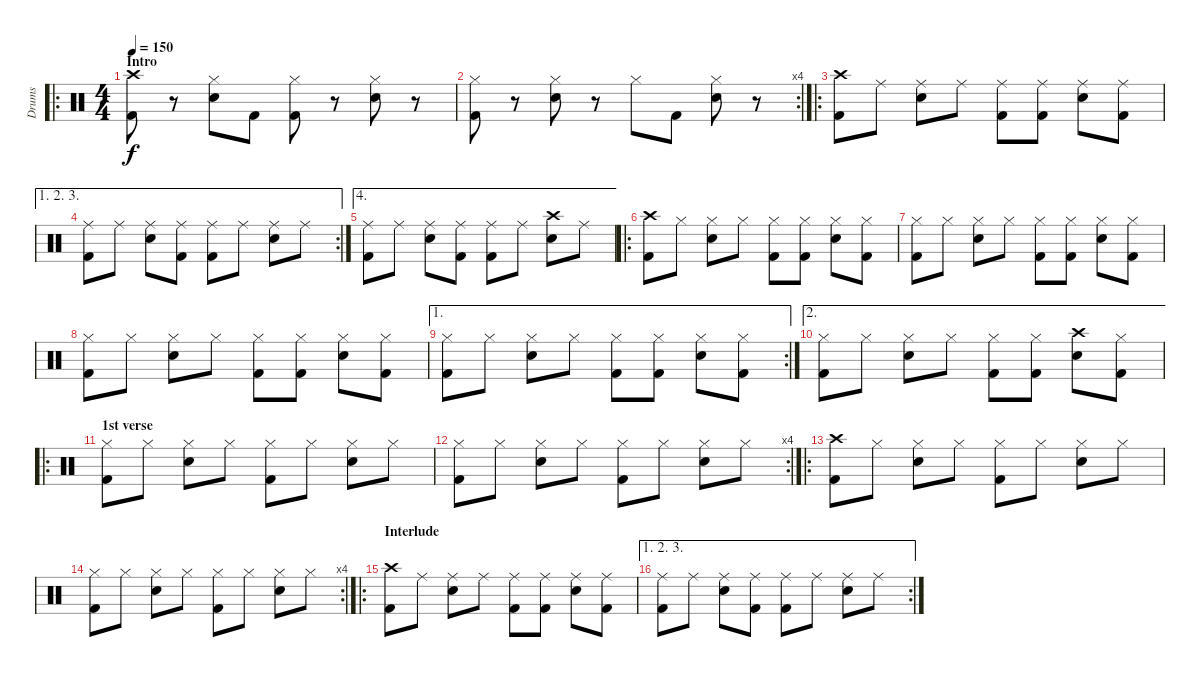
\track ("Drums" "Drums") {instrument percussion}
\staff {score}
\articulation defaults
\ro
\ts (4 4)
\section ("" "Intro")
\tempo 150
\clef neutral
\ks c
("Crash high (hit)" "Kick (hit) 2").8{dy f} r.8 ("Hi-Hat (closed)" "Electric Snare (hit)").8 "Kick (hit) 2".8 ("Hi-Hat (closed)" "Kick (hit) 2").8 r.8 ("Hi-Hat (closed)" "Electric Snare (hit)").8 r.8 |
\rc 4
("Hi-Hat (closed)" "Kick (hit) 2").8 r.8 ("Hi-Hat (closed)" "Electric Snare (hit)").8 r.8 "Hi-Hat (closed)".8 "Kick (hit) 2".8 ("Hi-Hat (closed)" "Electric Snare (hit)").8 r.8 |
\ro
("Crash high (hit)" "Kick (hit) 2").8 "Ride (middle)".8 ("Ride (middle)" "Electric Snare (hit)").8 "Ride (middle)".8 ("Ride (middle)" "Kick (hit) 2").8 ("Ride (middle)" "Kick (hit) 2").8 ("Ride (middle)" "Electric Snare (hit)").8 ("Ride (middle)" "Kick (hit) 2").8 |
\ae (1 2 3)
\rc 2
("Ride (middle)" "Kick (hit) 2").8 "Ride (middle)".8 ("Ride (middle)" "Electric Snare (hit)").8 ("Ride (middle)" "Kick (hit) 2").8 ("Ride (middle)" "Kick (hit) 2").8 "Ride (middle)".8 ("Ride (middle)" "Electric Snare (hit)").8 "Ride (middle)".8 |
\ae 4
("Ride (middle)" "Kick (hit) 2").8 "Ride (middle)".8 ("Ride (middle)" "Electric Snare (hit)").8 ("Ride (middle)" "Kick (hit) 2").8 ("Ride (middle)" "Kick (hit) 2").8 "Ride (middle)".8 ("Crash high (hit)" "Electric Snare (hit)").8 "Ride (middle)".8 |
\ro
("Crash high (hit)" "Kick (hit) 2").8 "Hi-Hat (closed)".8 ("Hi-Hat (closed)" "Electric Snare (hit)").8 "Hi-Hat (closed)".8 ("Hi-Hat (closed)" "Kick (hit) 2").8 ("Hi-Hat (closed)" "Kick (hit) 2").8 ("Hi-Hat (closed)" "Electric Snare (hit)").8 ("Hi-Hat (closed)" "Kick (hit) 2").8 |
("Hi-Hat (closed)" "Kick (hit) 2").8 "Hi-Hat (closed)".8 ("Hi-Hat (closed)" "Electric Snare (hit)").8 "Hi-Hat (closed)".8 ("Hi-Hat (closed)" "Kick (hit) 2").8 ("Hi-Hat (closed)" "Kick (hit) 2").8 ("Hi-Hat (closed)" "Electric Snare (hit)").8 ("Hi-Hat (closed)" "Kick (hit) 2").8 |
("Hi-Hat (closed)" "Kick (hit) 2").8 "Hi-Hat (closed)".8 ("Hi-Hat (closed)" "Electric Snare (hit)").8 "Hi-Hat (closed)".8 ("Hi-Hat (closed)" "Kick (hit) 2").8 ("Hi-Hat (closed)" "Kick (hit) 2").8 ("Hi-Hat (closed)" "Electric Snare (hit)").8 ("Hi-Hat (closed)" "Kick (hit) 2").8 |
\ae 1
\rc 2
("Hi-Hat (closed)" "Kick (hit) 2").8 "Hi-Hat (closed)".8 ("Hi-Hat (closed)" "Electric Snare (hit)").8 "Hi-Hat (closed)".8 ("Hi-Hat (closed)" "Kick (hit) 2").8 ("Hi-Hat (closed)" "Kick (hit) 2").8 ("Hi-Hat (closed)" "Electric Snare (hit)").8 ("Hi-Hat (closed)" "Kick (hit) 2").8 |
\ae 2
("Hi-Hat (closed)" "Kick (hit) 2").8 "Hi-Hat (closed)".8 ("Hi-Hat (closed)" "Electric Snare (hit)").8 "Hi-Hat (closed)".8 ("Hi-Hat (closed)" "Kick (hit) 2").8 ("Hi-Hat (closed)" "Kick (hit) 2").8 ("Crash high (hit)" "Electric Snare (hit)").8 ("Hi-Hat (closed)" "Kick (hit) 2").8 |
\ro
\section ("" "1st verse")
("Hi-Hat (closed)" "Kick (hit) 2").8 "Hi-Hat (closed)".8 ("Hi-Hat (closed)" "Electric Snare (hit)").8 "Hi-Hat (closed)".8 ("Hi-Hat (closed)" "Kick (hit) 2").8 "Hi-Hat (closed)".8 ("Hi-Hat (closed)" "Electric Snare (hit)").8 "Hi-Hat (closed)".8 |
\rc 4
("Hi-Hat (closed)" "Kick (hit) 2").8 "Hi-Hat (closed)".8 ("Hi-Hat (closed)" "Electric Snare (hit)").8 "Hi-Hat (closed)".8 ("Hi-Hat (closed)" "Kick (hit) 2").8 "Hi-Hat (closed)".8 ("Hi-Hat (closed)" "Electric Snare (hit)").8 "Hi-Hat (closed)".8 |
\ro
("Crash high (hit)" "Kick (hit) 2").8 "Hi-Hat (closed)".8 ("Hi-Hat (closed)" "Electric Snare (hit)").8 "Hi-Hat (closed)".8 ("Hi-Hat (closed)" "Kick (hit) 2").8 "Hi-Hat (closed)".8 ("Hi-Hat (closed)" "Electric Snare (hit)").8 "Hi-Hat (closed)".8 |
\rc 4
("Hi-Hat (closed)" "Kick (hit) 2").8 "Hi-Hat (closed)".8 ("Hi-Hat (closed)" "Electric Snare (hit)").8 "Hi-Hat (closed)".8 ("Hi-Hat (closed)" "Kick (hit) 2").8 "Hi-Hat (closed)".8 ("Hi-Hat (closed)" "Electric Snare (hit)").8 "Hi-Hat (closed)".8 |
\ro
\section ("" "Interlude")
("Crash high (hit)" "Kick (hit) 2").8 "Ride (middle)".8 ("Ride (middle)" "Electric Snare (hit)").8 "Ride (middle)".8 ("Ride (middle)" "Kick (hit) 2").8 ("Ride (middle)" "Kick (hit) 2").8 ("Ride (middle)" "Electric Snare (hit)").8 ("Ride (middle)" "Kick (hit) 2").8 |
\ae (1 2 3)
\rc 2
("Ride (middle)" "Kick (hit) 2").8 "Ride (middle)".8 ("Ride (middle)" "Electric Snare (hit)").8 ("Ride (middle)" "Kick (hit) 2").8 ("Ride (middle)" "Kick (hit) 2").8 "Ride (middle)".8 ("Ride (middle)" "Electric Snare (hit)").8 "Ride (middle)".8
